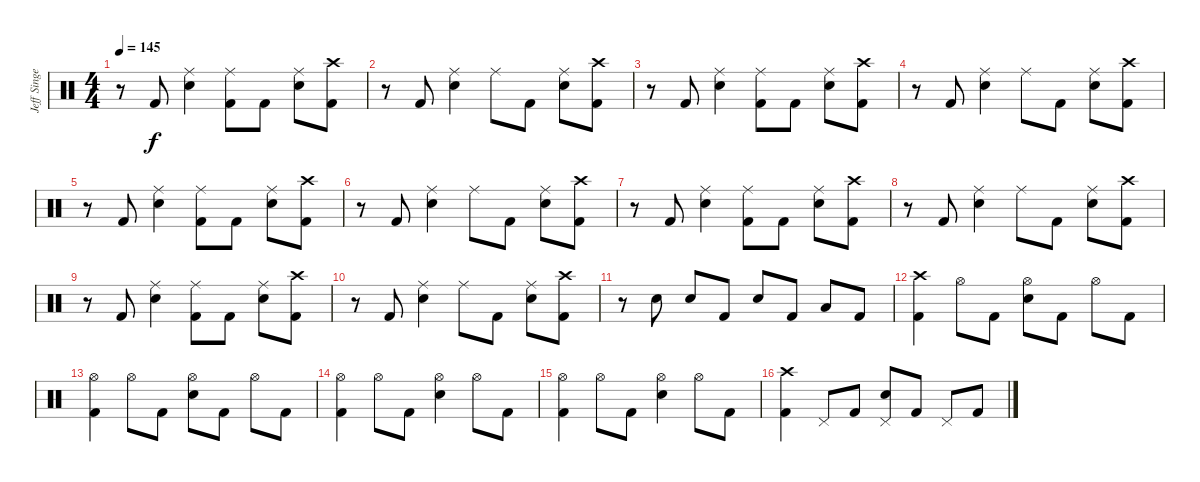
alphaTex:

\track ("Jeff Singer" "Jeff Singe") {instrument percussion}
\staff {score}
\articulation defaults
\ts (4 4)
\tempo 145
\clef neutral
\ks c
r.8{dy f} "Kick (hit) 2".8 ("Ride (middle)" "Electric Snare (hit)").4 ("Ride (middle)" "Kick (hit) 2").8 "Kick (hit) 2".8 ("Ride (middle)" "Electric Snare (hit)").8 ("Crash high (hit)" "Kick (hit) 2").8 |
r.8 "Kick (hit) 2".8 ("Ride (middle)" "Electric Snare (hit)").4 "Ride (middle)".8 "Kick (hit) 2".8 ("Ride (middle)" "Electric Snare (hit)").8 ("Crash high (hit)" "Kick (hit) 2").8 |
r.8 "Kick (hit) 2".8 ("Ride (middle)" "Electric Snare (hit)").4 ("Ride (middle)" "Kick (hit) 2").8 "Kick (hit) 2".8 ("Ride (middle)" "Electric Snare (hit)").8 ("Crash high (hit)" "Kick (hit) 2").8 |
r.8 "Kick (hit) 2".8 ("Ride (middle)" "Electric Snare (hit)").4 "Ride (middle)".8 "Kick (hit) 2".8 ("Ride (middle)" "Electric Snare (hit)").8 ("Crash high (hit)" "Kick (hit) 2").8 |
r.8 "Kick (hit) 2".8 ("Ride (middle)" "Electric Snare (hit)").4 ("Ride (middle)" "Kick (hit) 2").8 "Kick (hit) 2".8 ("Ride (middle)" "Electric Snare (hit)").8 ("Crash high (hit)" "Kick (hit) 2").8 |
r.8 "Kick (hit) 2".8 ("Ride (middle)" "Electric Snare (hit)").4 "Ride (middle)".8 "Kick (hit) 2".8 ("Ride (middle)" "Electric Snare (hit)").8 ("Crash high (hit)" "Kick (hit) 2").8 |
r.8 "Kick (hit) 2".8 ("Ride (middle)" "Electric Snare (hit)").4 ("Ride (middle)" "Kick (hit) 2").8 "Kick (hit) 2".8 ("Ride (middle)" "Electric Snare (hit)").8 ("Crash high (hit)" "Kick (hit) 2").8 |
r.8 "Kick (hit) 2".8 ("Ride (middle)" "Electric Snare (hit)").4 "Ride (middle)".8 "Kick (hit) 2".8 ("Ride (middle)" "Electric Snare (hit)").8 ("Crash high (hit)" "Kick (hit) 2").8 |
r.8 "Kick (hit) 2".8 ("Ride (middle)" "Electric Snare (hit)").4 ("Ride (middle)" "Kick (hit) 2").8 "Kick (hit) 2".8 ("Ride (middle)" "Electric Snare (hit)").8 ("Crash high (hit)" "Kick (hit) 2").8 |
r.8 "Kick (hit) 2".8 ("Ride (middle)" "Electric Snare (hit)").4 "Ride (middle)".8 "Kick (hit) 2".8 ("Ride (middle)" "Electric Snare (hit)").8 ("Crash high (hit)" "Kick (hit) 2").8 |
r.8 "Electric Snare (hit)".8 "Electric Snare (hit)".8 "Kick (hit) 2".8 "Electric Snare (hit)".8 "Kick (hit) 2".8 "Low Tom (hit)".8 "Kick (hit) 2".8 |
("Crash high (hit)" "Kick (hit) 2").4 "Hi-Hat (open)".8 "Kick (hit) 2".8 ("Hi-Hat (open)" "Electric Snare (hit)").8 "Kick (hit) 2".8 "Hi-Hat (open)".8 "Kick (hit) 2".8 |
("Hi-Hat (open)" "Kick (hit) 2").4 "Hi-Hat (open)".8 "Kick (hit) 2".8 ("Hi-Hat (open)" "Electric Snare (hit)").8 "Kick (hit) 2".8 "Hi-Hat (open)".8 "Kick (hit) 2".8 |
("Hi-Hat (open)" "Kick (hit) 2").4 "Hi-Hat (open)".8 "Kick (hit) 2".8 ("Hi-Hat (open)" "Electric Snare (hit)").4 "Hi-Hat (open)".8 "Kick (hit) 2".8 |
("Hi-Hat (open)" "Kick (hit) 2").4 "Hi-Hat (open)".8 "Kick (hit) 2".8 ("Hi-Hat (open)" "Electric Snare (hit)").4 "Hi-Hat (open)".8 "Kick (hit) 2".8 |
("Crash high (hit)" "Kick (hit) 2").4 "Pedal Hi-Hat (hit)".8 "Kick (hit) 2".8 ("Pedal Hi-Hat (hit)" "Electric Snare (hit)").8 "Kick (hit) 2".8 "Pedal Hi-Hat (hit)".8 "Kick (hit) 2".8
